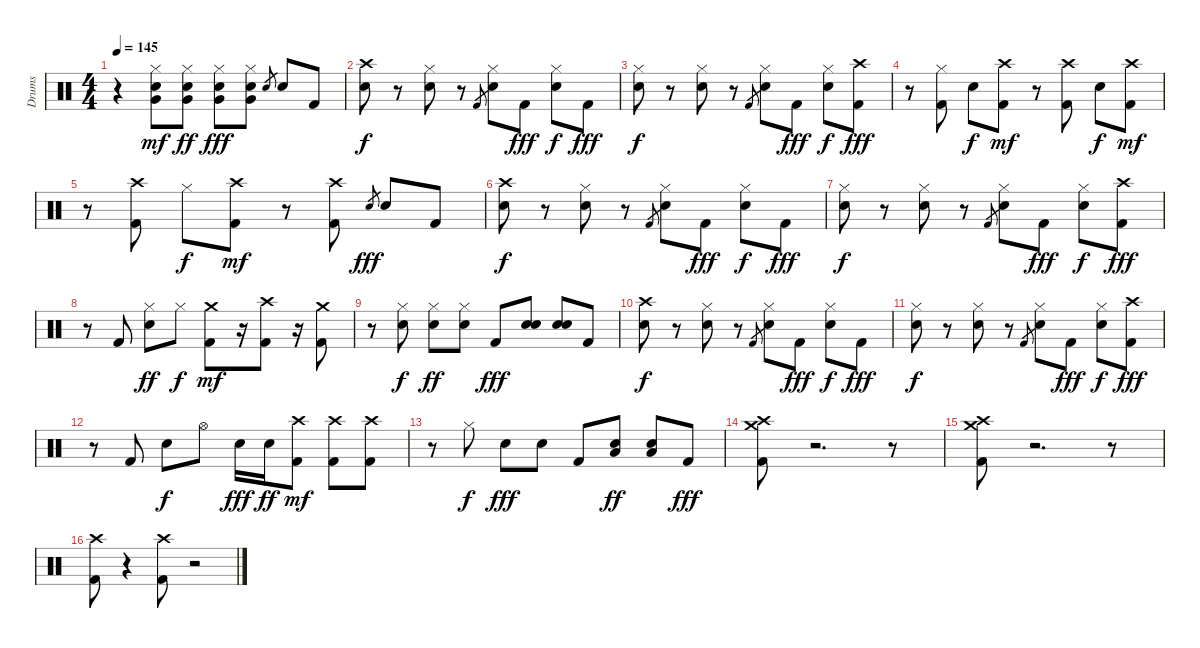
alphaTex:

\track ("Drums" "Drums") {instrument percussion}
\staff {score}
\articulation defaults
\ts (4 4)
\tempo 145
\clef neutral
\ks c
r.4{dy fff} ("Snare (hit) 2" "Very Low Tom (hit)" "Hi-Hat (closed)").8{dy mf} ("Snare (hit) 2" "Very Low Tom (hit)" "Hi-Hat (closed)").8{dy ff} ("Snare (hit) 2" "Very Low Tom (hit)" "Hi-Hat (closed)").8{dy fff} ("Snare (hit) 2" "Very Low Tom (hit)" "Hi-Hat (closed)").8 "Snare (hit) 2".8{gr} "Snare (hit) 2".8 "Kick (hit) 2".8 |
("Snare (hit) 2" "Crash high (hit)").8{dy f} r.8 ("Snare (hit) 2" "Hi-Hat (closed)").8 r.8 "Kick (hit) 2".8{gr} ("Snare (hit) 2" "Hi-Hat (closed)").8 "Kick (hit) 2".8{dy fff} ("Snare (hit) 2" "Hi-Hat (closed)").8{dy f} "Kick (hit) 2".8{dy fff} |
("Snare (hit) 2" "Hi-Hat (closed)").8{dy f} r.8 ("Snare (hit) 2" "Hi-Hat (closed)").8 r.8 "Kick (hit) 2".8{gr} ("Snare (hit) 2" "Hi-Hat (closed)").8 "Kick (hit) 2".8{dy fff} ("Snare (hit) 2" "Hi-Hat (closed)").8{dy f} ("Kick (hit) 2" "Crash high (hit)").8{dy fff} |
r.8 ("Kick (hit) 2" "Hi-Hat (closed)").8 "Snare (hit) 2".8{dy f} ("Kick (hit) 2" "Crash high (hit)").8{dy mf} r.8 ("Kick (hit) 2" "Crash high (hit)").8 "Snare (hit) 2".8{dy f} ("Kick (hit) 2" "Crash high (hit)").8{dy mf} |
r.8 ("Kick (hit) 2" "Crash high (hit)").8 "Hi-Hat (closed)".8{dy f} ("Kick (hit) 2" "Crash high (hit)").8{dy mf} r.8 ("Kick (hit) 2" "Crash high (hit)").8 "Snare (hit) 2".8{gr dy fff} "Snare (hit) 2".8 "Kick (hit) 2".8 |
("Snare (hit) 2" "Crash high (hit)").8{dy f} r.8 ("Snare (hit) 2" "Hi-Hat (closed)").8 r.8 "Kick (hit) 2".8{gr} ("Snare (hit) 2" "Hi-Hat (closed)").8 "Kick (hit) 2".8{dy fff} ("Snare (hit) 2" "Hi-Hat (closed)").8{dy f} "Kick (hit) 2".8{dy fff} |
("Snare (hit) 2" "Hi-Hat (closed)").8{dy f} r.8 ("Snare (hit) 2" "Hi-Hat (closed)").8 r.8 "Kick (hit) 2".8{gr} ("Snare (hit) 2" "Hi-Hat (closed)").8 "Kick (hit) 2".8{dy fff} ("Snare (hit) 2" "Hi-Hat (closed)").8{dy f} ("Kick (hit) 2" "Crash high (hit)").8{dy fff} |
r.8 "Kick (hit) 2".8 ("Snare (hit) 2" "Hi-Hat (closed)").8{dy ff} "Hi-Hat (closed)".8{dy f} ("Kick (hit) 2" "Crash medium (hit)").8{dy mf} r.16 ("Kick (hit) 2" "Crash high (hit)").8 r.16 ("Kick (hit) 2" "Crash medium (hit)").8 |
r.8 ("Snare (hit) 2" "Hi-Hat (closed)").8{dy f} ("Snare (hit) 2" "Hi-Hat (closed)").8{dy ff} ("Snare (hit) 2" "Hi-Hat (closed)").8 "Kick (hit) 2".8{dy fff} ("Snare (hit) 2" "Snare (hit) 2").8 ("Snare (hit) 2" "Snare (hit) 2").8 "Kick (hit) 2".8 |
("Snare (hit) 2" "Crash high (hit)").8{dy f} r.8 ("Snare (hit) 2" "Hi-Hat (closed)").8 r.8 "Kick (hit) 2".8{gr} ("Snare (hit) 2" "Hi-Hat (closed)").8 "Kick (hit) 2".8{dy fff} ("Snare (hit) 2" "Hi-Hat (closed)").8{dy f} "Kick (hit) 2".8{dy fff} |
("Snare (hit) 2" "Hi-Hat (closed)").8{dy f} r.8 ("Snare (hit) 2" "Hi-Hat (closed)").8 r.8 "Kick (hit) 2".8{gr} ("Snare (hit) 2" "Hi-Hat (closed)").8 "Kick (hit) 2".8{dy fff} ("Snare (hit) 2" "Hi-Hat (closed)").8{dy f} ("Kick (hit) 2" "Crash high (hit)").8{dy fff} |
r.8 "Kick (hit) 2".8 "Snare (hit) 2".8{dy f} "Hi-Hat (open)".8 "Snare (hit) 2".16{dy fff} "Snare (hit) 2".16{dy ff} ("Kick (hit) 2" "Crash high (hit)").8{dy mf} ("Kick (hit) 2" "Crash high (hit)").8 ("Kick (hit) 2" "Crash high (hit)").8 |
r.8 "Hi-Hat (closed)".8{dy f} "Snare (hit) 2".8{dy fff} "Snare (hit) 2".8 "Kick (hit) 2".8 ("Snare (hit) 2" "Low Tom (hit)").8{dy ff} ("Snare (hit) 2" "Low Tom (hit)").8 "Kick (hit) 2".8{dy fff} |
("Kick (hit) 2" "Crash high (hit)" "Crash medium (hit)").8 r.2{d} r.8 |
("Kick (hit) 2" "Crash high (hit)" "Crash medium (hit)").8 r.2{d} r.8 |
("Kick (hit) 2" "Crash high (hit)").8 r.4 ("Kick (hit) 2" "Crash high (hit)").8 r.2
